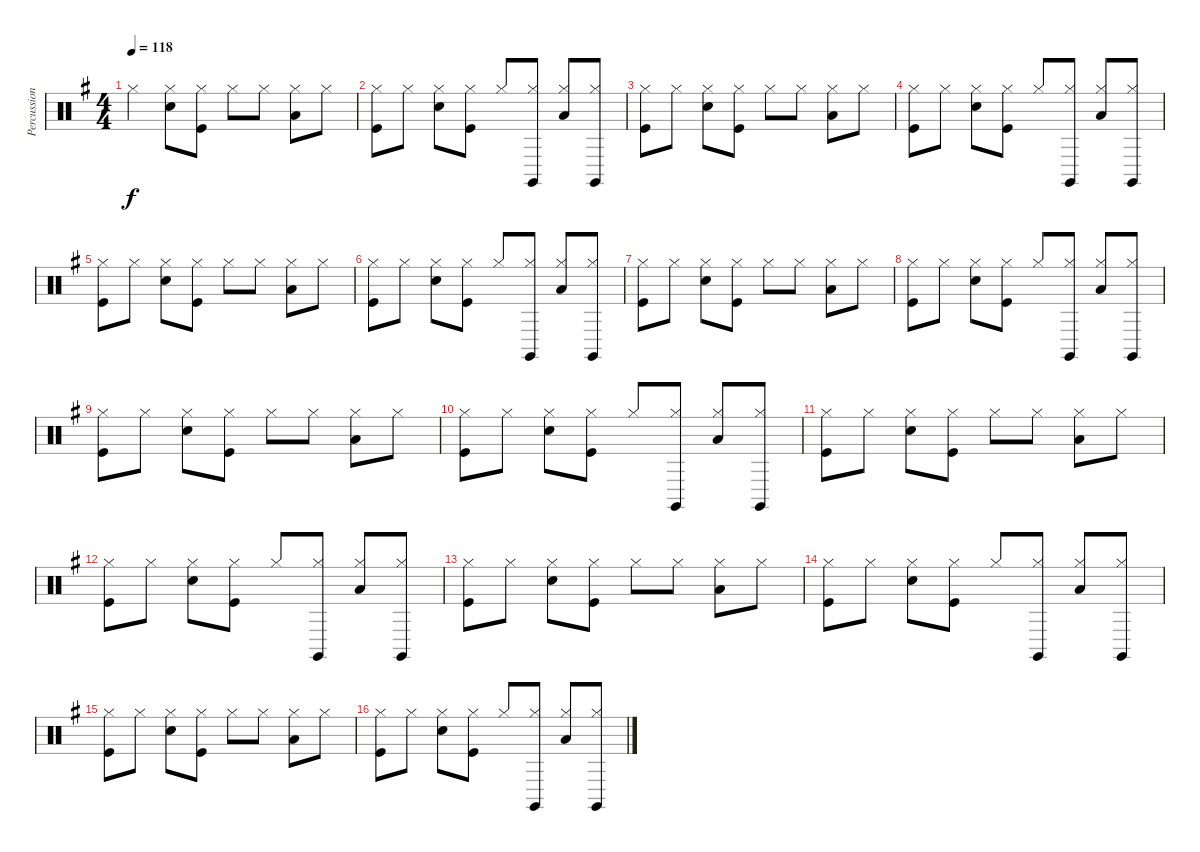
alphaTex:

\track ("Percussion" "Percussion") {instrument percussion}
\staff {score}
\articulation defaults
\ts (4 4)
\tempo 118
\clef neutral
\ks g "Hi-Hat (closed)".4{dy f}
("Hi-Hat (closed)" "Electric Snare (hit)").8 ("Hi-Hat (closed)" "Kick (hit)").8 "Hi-Hat (closed)".8 "Hi-Hat (closed)".8 ("Hi-Hat (closed)" "Low Tom (hit)").8 "Hi-Hat (closed)".8 |
("Hi-Hat (closed)" "Kick (hit)").8 "Hi-Hat (closed)".8 ("Hi-Hat (closed)" "Electric Snare (hit)").8 ("Hi-Hat (closed)" "Kick (hit)").8 "Hi-Hat (closed)".8 ("Hi-Hat (closed)" "Claves (hit)").8 ("Hi-Hat (closed)" "Low Tom (hit)").8 ("Hi-Hat (closed)" "Claves (hit)").8 |
("Hi-Hat (closed)" "Kick (hit)").8 "Hi-Hat (closed)".8 ("Hi-Hat (closed)" "Electric Snare (hit)").8 ("Hi-Hat (closed)" "Kick (hit)").8 "Hi-Hat (closed)".8 "Hi-Hat (closed)".8 ("Hi-Hat (closed)" "Low Tom (hit)").8 "Hi-Hat (closed)".8 |
("Hi-Hat (closed)" "Kick (hit)").8 "Hi-Hat (closed)".8 ("Hi-Hat (closed)" "Electric Snare (hit)").8 ("Hi-Hat (closed)" "Kick (hit)").8 "Hi-Hat (closed)".8 ("Hi-Hat (closed)" "Claves (hit)").8 ("Hi-Hat (closed)" "Low Tom (hit)").8 ("Hi-Hat (closed)" "Claves (hit)").8 |
("Hi-Hat (closed)" "Kick (hit)").8 "Hi-Hat (closed)".8 ("Hi-Hat (closed)" "Electric Snare (hit)").8 ("Hi-Hat (closed)" "Kick (hit)").8 "Hi-Hat (closed)".8 "Hi-Hat (closed)".8 ("Hi-Hat (closed)" "Low Tom (hit)").8 "Hi-Hat (closed)".8 |
("Hi-Hat (closed)" "Kick (hit)").8 "Hi-Hat (closed)".8 ("Hi-Hat (closed)" "Electric Snare (hit)").8 ("Hi-Hat (closed)" "Kick (hit)").8 "Hi-Hat (closed)".8 ("Hi-Hat (closed)" "Claves (hit)").8 ("Hi-Hat (closed)" "Low Tom (hit)").8 ("Hi-Hat (closed)" "Claves (hit)").8 |
("Hi-Hat (closed)" "Kick (hit)").8 "Hi-Hat (closed)".8 ("Hi-Hat (closed)" "Electric Snare (hit)").8 ("Hi-Hat (closed)" "Kick (hit)").8 "Hi-Hat (closed)".8 "Hi-Hat (closed)".8 ("Hi-Hat (closed)" "Low Tom (hit)").8 "Hi-Hat (closed)".8 |
("Hi-Hat (closed)" "Kick (hit)").8 "Hi-Hat (closed)".8 ("Hi-Hat (closed)" "Electric Snare (hit)").8 ("Hi-Hat (closed)" "Kick (hit)").8 "Hi-Hat (closed)".8 ("Hi-Hat (closed)" "Claves (hit)").8 ("Hi-Hat (closed)" "Low Tom (hit)").8 ("Hi-Hat (closed)" "Claves (hit)").8 |
("Hi-Hat (closed)" "Kick (hit)").8 "Hi-Hat (closed)".8 ("Hi-Hat (closed)" "Electric Snare (hit)").8 ("Hi-Hat (closed)" "Kick (hit)").8 "Hi-Hat (closed)".8 "Hi-Hat (closed)".8 ("Hi-Hat (closed)" "Low Tom (hit)").8 "Hi-Hat (closed)".8 |
("Hi-Hat (closed)" "Kick (hit)").8 "Hi-Hat (closed)".8 ("Hi-Hat (closed)" "Electric Snare (hit)").8 ("Hi-Hat (closed)" "Kick (hit)").8 "Hi-Hat (closed)".8 ("Hi-Hat (closed)" "Claves (hit)").8 ("Hi-Hat (closed)" "Low Tom (hit)").8 ("Hi-Hat (closed)" "Claves (hit)").8 |
("Hi-Hat (closed)" "Kick (hit)").8 "Hi-Hat (closed)".8 ("Hi-Hat (closed)" "Electric Snare (hit)").8 ("Hi-Hat (closed)" "Kick (hit)").8 "Hi-Hat (closed)".8 "Hi-Hat (closed)".8 ("Hi-Hat (closed)" "Low Tom (hit)").8 "Hi-Hat (closed)".8 |
("Hi-Hat (closed)" "Kick (hit)").8 "Hi-Hat (closed)".8 ("Hi-Hat (closed)" "Electric Snare (hit)").8 ("Hi-Hat (closed)" "Kick (hit)").8 "Hi-Hat (closed)".8 ("Hi-Hat (closed)" "Claves (hit)").8 ("Hi-Hat (closed)" "Low Tom (hit)").8 ("Hi-Hat (closed)" "Claves (hit)").8 |
("Hi-Hat (closed)" "Kick (hit)").8 "Hi-Hat (closed)".8 ("Hi-Hat (closed)" "Electric Snare (hit)").8 ("Hi-Hat (closed)" "Kick (hit)").8 "Hi-Hat (closed)".8 "Hi-Hat (closed)".8 ("Hi-Hat (closed)" "Low Tom (hit)").8 "Hi-Hat (closed)".8 |
("Hi-Hat (closed)" "Kick (hit)").8 "Hi-Hat (closed)".8 ("Hi-Hat (closed)" "Electric Snare (hit)").8 ("Hi-Hat (closed)" "Kick (hit)").8 "Hi-Hat (closed)".8 ("Hi-Hat (closed)" "Claves (hit)").8 ("Hi-Hat (closed)" "Low Tom (hit)").8 ("Hi-Hat (closed)" "Claves (hit)").8 |
("Hi-Hat (closed)" "Kick (hit)").8 "Hi-Hat (closed)".8 ("Hi-Hat (closed)" "Electric Snare (hit)").8 ("Hi-Hat (closed)" "Kick (hit)").8 "Hi-Hat (closed)".8 "Hi-Hat (closed)".8 ("Hi-Hat (closed)" "Low Tom (hit)").8 "Hi-Hat (closed)".8 |
("Hi-Hat (closed)" "Kick (hit)").8 "Hi-Hat (closed)".8 ("Hi-Hat (closed)" "Electric Snare (hit)").8 ("Hi-Hat (closed)" "Kick (hit)").8 "Hi-Hat (closed)".8 ("Hi-Hat (closed)" "Claves (hit)").8 ("Hi-Hat (closed)" "Low Tom (hit)").8 ("Hi-Hat (closed)" "Claves (hit)").8
